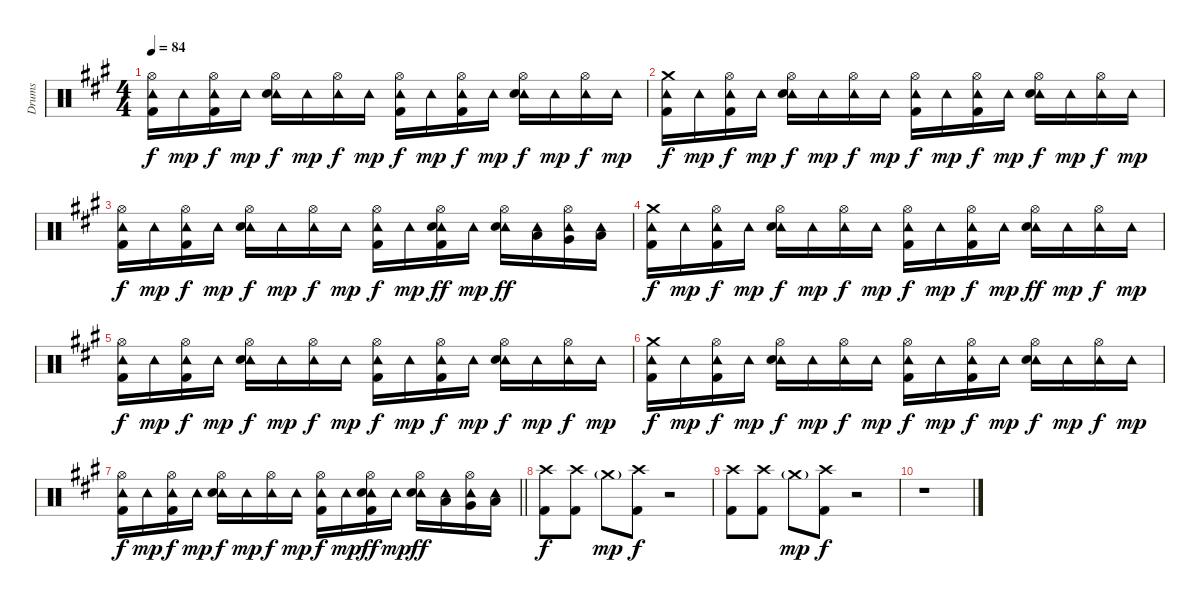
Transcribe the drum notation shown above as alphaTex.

\track ("Drums" "Drums") {instrument percussion}
\staff {score}
\articulation defaults
\ts (4 4)
\tempo 84
\clef neutral
\ks a
("Hi-Hat (open)" "Tambourine (hit)" "Kick (hit) 2").16{dy f} "Tambourine (hit)".16{dy mp} ("Hi-Hat (open)" "Tambourine (hit)" "Kick (hit) 2").16{dy f} "Tambourine (hit)".16{dy mp} ("Hi-Hat (open)" "Tambourine (hit)" "Electric Snare (hit)").16{dy f} "Tambourine (hit)".16{dy mp} ("Hi-Hat (open)" "Tambourine (hit)").16{dy f} "Tambourine (hit)".16{dy mp} ("Hi-Hat (open)" "Tambourine (hit)" "Kick (hit) 2").16{dy f} "Tambourine (hit)".16{dy mp} ("Hi-Hat (open)" "Tambourine (hit)" "Kick (hit) 2").16{dy f} "Tambourine (hit)".16{dy mp} ("Hi-Hat (open)" "Tambourine (hit)" "Electric Snare (hit)").16{dy f} "Tambourine (hit)".16{dy mp} ("Hi-Hat (open)" "Tambourine (hit)").16{dy f} "Tambourine (hit)".16{dy mp} |
("Crash medium (hit)" "Tambourine (hit)" "Kick (hit) 2").16{dy f} "Tambourine (hit)".16{dy mp} ("Hi-Hat (open)" "Tambourine (hit)" "Kick (hit) 2").16{dy f} "Tambourine (hit)".16{dy mp} ("Hi-Hat (open)" "Tambourine (hit)" "Electric Snare (hit)").16{dy f} "Tambourine (hit)".16{dy mp} ("Hi-Hat (open)" "Tambourine (hit)").16{dy f} "Tambourine (hit)".16{dy mp} ("Hi-Hat (open)" "Tambourine (hit)" "Kick (hit) 2").16{dy f} "Tambourine (hit)".16{dy mp} ("Hi-Hat (open)" "Tambourine (hit)" "Kick (hit) 2").16{dy f} "Tambourine (hit)".16{dy mp} ("Hi-Hat (open)" "Tambourine (hit)" "Electric Snare (hit)").16{dy f} "Tambourine (hit)".16{dy mp} ("Hi-Hat (open)" "Tambourine (hit)").16{dy f} "Tambourine (hit)".16{dy mp} |
("Hi-Hat (open)" "Tambourine (hit)" "Kick (hit) 2").16{dy f} "Tambourine (hit)".16{dy mp} ("Hi-Hat (open)" "Tambourine (hit)" "Kick (hit) 2").16{dy f} "Tambourine (hit)".16{dy mp} ("Hi-Hat (open)" "Tambourine (hit)" "Electric Snare (hit)").16{dy f} "Tambourine (hit)".16{dy mp} ("Hi-Hat (open)" "Tambourine (hit)").16{dy f} "Tambourine (hit)".16{dy mp} ("Hi-Hat (open)" "Tambourine (hit)" "Kick (hit) 2").16{dy f} "Tambourine (hit)".16{dy mp} ("Hi-Hat (open)" "Tambourine (hit)" "Electric Snare (hit)" "Kick (hit) 2").16{dy ff} "Tambourine (hit)".16{dy mp} ("Hi-Hat (open)" "Tambourine (hit)" "Electric Snare (hit)").16{dy ff} ("Tambourine (hit)" "Low Tom (hit)").16 ("Hi-Hat (open)" "Tambourine (hit)" "Very Low Tom (hit)").16 ("Tambourine (hit)" "Low Floor Tom (hit)").16 |
("Crash medium (hit)" "Tambourine (hit)" "Kick (hit) 2").16{dy f} "Tambourine (hit)".16{dy mp} ("Hi-Hat (open)" "Tambourine (hit)" "Kick (hit) 2").16{dy f} "Tambourine (hit)".16{dy mp} ("Hi-Hat (open)" "Tambourine (hit)" "Electric Snare (hit)").16{dy f} "Tambourine (hit)".16{dy mp} ("Hi-Hat (open)" "Tambourine (hit)").16{dy f} "Tambourine (hit)".16{dy mp} ("Hi-Hat (open)" "Tambourine (hit)" "Kick (hit) 2").16{dy f} "Tambourine (hit)".16{dy mp} ("Hi-Hat (open)" "Tambourine (hit)" "Kick (hit) 2").16{dy f} "Tambourine (hit)".16{dy mp} ("Hi-Hat (open)" "Tambourine (hit)" "Electric Snare (hit)").16{dy ff} "Tambourine (hit)".16{dy mp} ("Hi-Hat (open)" "Tambourine (hit)").16{dy f} "Tambourine (hit)".16{dy mp} |
("Hi-Hat (open)" "Tambourine (hit)" "Kick (hit) 2").16{dy f} "Tambourine (hit)".16{dy mp} ("Hi-Hat (open)" "Tambourine (hit)" "Kick (hit) 2").16{dy f} "Tambourine (hit)".16{dy mp} ("Hi-Hat (open)" "Tambourine (hit)" "Electric Snare (hit)").16{dy f} "Tambourine (hit)".16{dy mp} ("Hi-Hat (open)" "Tambourine (hit)").16{dy f} "Tambourine (hit)".16{dy mp} ("Hi-Hat (open)" "Tambourine (hit)" "Kick (hit) 2").16{dy f} "Tambourine (hit)".16{dy mp} ("Hi-Hat (open)" "Tambourine (hit)" "Kick (hit) 2").16{dy f} "Tambourine (hit)".16{dy mp} ("Hi-Hat (open)" "Tambourine (hit)" "Electric Snare (hit)").16{dy f} "Tambourine (hit)".16{dy mp} ("Hi-Hat (open)" "Tambourine (hit)").16{dy f} "Tambourine (hit)".16{dy mp} |
("Crash medium (hit)" "Tambourine (hit)" "Kick (hit) 2").16{dy f} "Tambourine (hit)".16{dy mp} ("Hi-Hat (open)" "Tambourine (hit)" "Kick (hit) 2").16{dy f} "Tambourine (hit)".16{dy mp} ("Hi-Hat (open)" "Tambourine (hit)" "Electric Snare (hit)").16{dy f} "Tambourine (hit)".16{dy mp} ("Hi-Hat (open)" "Tambourine (hit)").16{dy f} "Tambourine (hit)".16{dy mp} ("Hi-Hat (open)" "Tambourine (hit)" "Kick (hit) 2").16{dy f} "Tambourine (hit)".16{dy mp} ("Hi-Hat (open)" "Tambourine (hit)" "Kick (hit) 2").16{dy f} "Tambourine (hit)".16{dy mp} ("Hi-Hat (open)" "Tambourine (hit)" "Electric Snare (hit)").16{dy f} "Tambourine (hit)".16{dy mp} ("Hi-Hat (open)" "Tambourine (hit)").16{dy f} "Tambourine (hit)".16{dy mp} |
\barLineRight lightlight
("Hi-Hat (open)" "Tambourine (hit)" "Kick (hit) 2").16{dy f} "Tambourine (hit)".16{dy mp} ("Hi-Hat (open)" "Tambourine (hit)" "Kick (hit) 2").16{dy f} "Tambourine (hit)".16{dy mp} ("Hi-Hat (open)" "Tambourine (hit)" "Electric Snare (hit)").16{dy f} "Tambourine (hit)".16{dy mp} ("Hi-Hat (open)" "Tambourine (hit)").16{dy f} "Tambourine (hit)".16{dy mp} ("Hi-Hat (open)" "Tambourine (hit)" "Kick (hit) 2").16{dy f} "Tambourine (hit)".16{dy mp} ("Hi-Hat (open)" "Tambourine (hit)" "Electric Snare (hit)" "Kick (hit) 2").16{dy ff} "Tambourine (hit)".16{dy mp} ("Hi-Hat (open)" "Tambourine (hit)" "Electric Snare (hit)").16{dy ff} ("Tambourine (hit)" "Low Tom (hit)").16 ("Hi-Hat (open)" "Tambourine (hit)" "Very Low Tom (hit)").16 ("Tambourine (hit)" "Low Floor Tom (hit)").16 |
("Crash high (hit)" "Kick (hit) 2").8{dy f} ("Crash high (hit)" "Kick (hit) 2").8 "Crash medium (hit)"{g}.8{dy mp} ("Crash high (hit)" "Kick (hit) 2").8{dy f} r.2 |
("Crash high (hit)" "Kick (hit) 2").8 ("Crash high (hit)" "Kick (hit) 2").8 "Crash medium (hit)"{g}.8{dy mp} ("Crash high (hit)" "Kick (hit) 2").8{dy f} r.2 |
r.1
